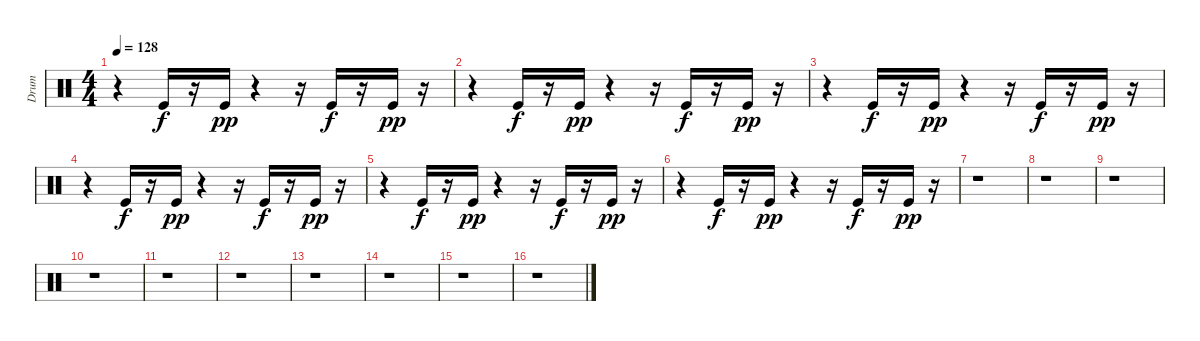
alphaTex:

\track ("Drum" "Drum") {instrument percussion}
\staff {score}
\articulation defaults
\ts (4 4)
\tempo 128
\clef neutral
\ks c
r.4{dy pp} "Kick (hit)".16{dy f} r.16 "Kick (hit)".16{dy pp} r.4 r.16 "Kick (hit)".16{dy f} r.16 "Kick (hit)".16{dy pp} r.16 |
r.4 "Kick (hit)".16{dy f} r.16 "Kick (hit)".16{dy pp} r.4 r.16 "Kick (hit)".16{dy f} r.16 "Kick (hit)".16{dy pp} r.16 |
r.4 "Kick (hit)".16{dy f} r.16 "Kick (hit)".16{dy pp} r.4 r.16 "Kick (hit)".16{dy f} r.16 "Kick (hit)".16{dy pp} r.16 |
r.4 "Kick (hit)".16{dy f} r.16 "Kick (hit)".16{dy pp} r.4 r.16 "Kick (hit)".16{dy f} r.16 "Kick (hit)".16{dy pp} r.16 |
r.4 "Kick (hit)".16{dy f} r.16 "Kick (hit)".16{dy pp} r.4 r.16 "Kick (hit)".16{dy f} r.16 "Kick (hit)".16{dy pp} r.16 |
r.4 "Kick (hit)".16{dy f} r.16 "Kick (hit)".16{dy pp} r.4 r.16 "Kick (hit)".16{dy f} r.16 "Kick (hit)".16{dy pp} r.16 |
r.1 |
r.1 |
r.1 |
r.1 |
r.1 |
r.1 |
r.1 |
r.1 |
r.1 |
r.1
